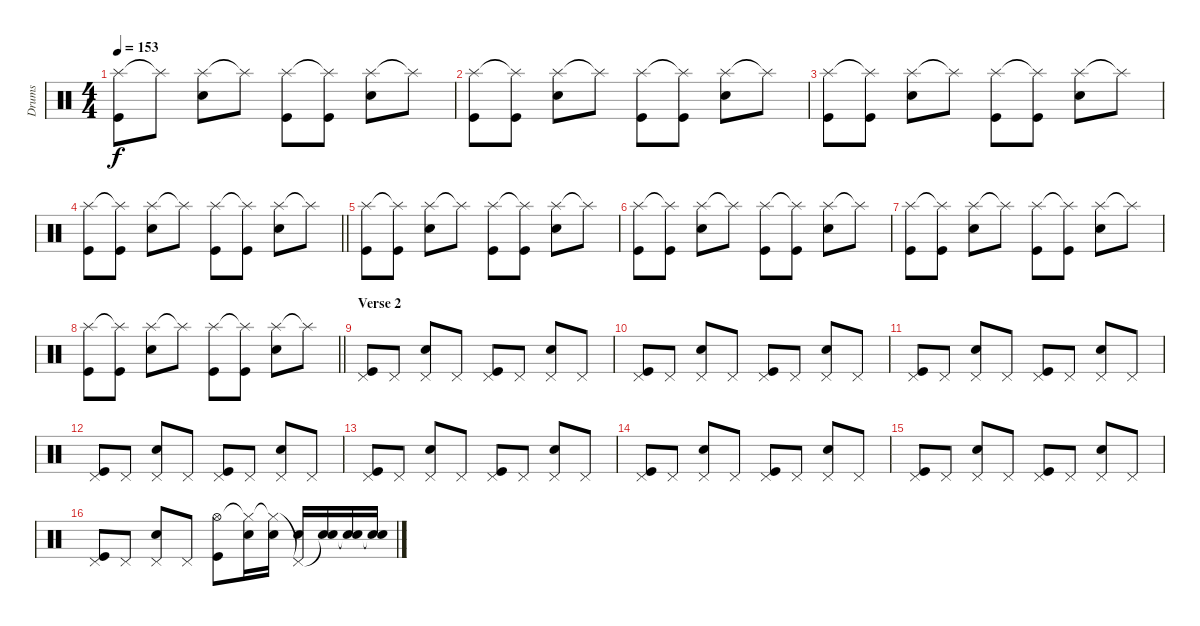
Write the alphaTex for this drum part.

\track ("Drums" "Drums") {instrument percussion}
\staff {score}
\articulation defaults
\ts (4 4)
\tempo 153
\clef neutral
\ks c
("Splash (hit)" "Kick (hit)").8{dy f} "Splash (hit)"{t}.8 ("Splash (hit)" "Snare (hit) 2").8 "Splash (hit)"{t}.8 ("Splash (hit)" "Kick (hit)").8 ("Splash (hit)"{t} "Kick (hit)").8 ("Splash (hit)" "Snare (hit) 2").8 "Splash (hit)"{t}.8 |
("Splash (hit)" "Kick (hit)").8 ("Splash (hit)"{t} "Kick (hit)").8 ("Splash (hit)" "Snare (hit) 2").8 "Splash (hit)"{t}.8 ("Splash (hit)" "Kick (hit)").8 ("Splash (hit)"{t} "Kick (hit)").8 ("Splash (hit)" "Snare (hit) 2").8 "Splash (hit)"{t}.8 |
("Splash (hit)" "Kick (hit)").8 ("Splash (hit)"{t} "Kick (hit)").8 ("Splash (hit)" "Snare (hit) 2").8 "Splash (hit)"{t}.8 ("Splash (hit)" "Kick (hit)").8 ("Splash (hit)"{t} "Kick (hit)").8 ("Splash (hit)" "Snare (hit) 2").8 "Splash (hit)"{t}.8 |
\barLineRight lightlight
("Splash (hit)" "Kick (hit)").8 ("Splash (hit)"{t} "Kick (hit)").8 ("Splash (hit)" "Snare (hit) 2").8 "Splash (hit)"{t}.8 ("Splash (hit)" "Kick (hit)").8 ("Splash (hit)"{t} "Kick (hit)").8 ("Splash (hit)" "Snare (hit) 2").8 "Splash (hit)"{t}.8 |
("Splash (hit)" "Kick (hit)").8 ("Splash (hit)"{t} "Kick (hit)").8 ("Splash (hit)" "Snare (hit) 2").8 "Splash (hit)"{t}.8 ("Splash (hit)" "Kick (hit)").8 ("Splash (hit)"{t} "Kick (hit)").8 ("Splash (hit)" "Snare (hit) 2").8 "Splash (hit)"{t}.8 |
("Splash (hit)" "Kick (hit)").8 ("Splash (hit)"{t} "Kick (hit)").8 ("Splash (hit)" "Snare (hit) 2").8 "Splash (hit)"{t}.8 ("Splash (hit)" "Kick (hit)").8 ("Splash (hit)"{t} "Kick (hit)").8 ("Splash (hit)" "Snare (hit) 2").8 "Splash (hit)"{t}.8 |
("Splash (hit)" "Kick (hit)").8 ("Splash (hit)"{t} "Kick (hit)").8 ("Splash (hit)" "Snare (hit) 2").8 "Splash (hit)"{t}.8 ("Splash (hit)" "Kick (hit)").8 ("Splash (hit)"{t} "Kick (hit)").8 ("Splash (hit)" "Snare (hit) 2").8 "Splash (hit)"{t}.8 |
\barLineRight lightlight
("Splash (hit)" "Kick (hit)").8 ("Splash (hit)"{t} "Kick (hit)").8 ("Splash (hit)" "Snare (hit) 2").8 "Splash (hit)"{t}.8 ("Splash (hit)" "Kick (hit)").8 ("Splash (hit)"{t} "Kick (hit)").8 ("Splash (hit)" "Snare (hit) 2").8 "Splash (hit)"{t}.8 |
\section ("" "Verse 2")
("Pedal Hi-Hat (hit)" "Kick (hit)").8 "Pedal Hi-Hat (hit)".8 ("Pedal Hi-Hat (hit)" "Snare (hit) 2").8 "Pedal Hi-Hat (hit)".8 ("Pedal Hi-Hat (hit)" "Kick (hit)").8 "Pedal Hi-Hat (hit)".8 ("Pedal Hi-Hat (hit)" "Snare (hit) 2").8 "Pedal Hi-Hat (hit)".8 |
("Pedal Hi-Hat (hit)" "Kick (hit)").8 "Pedal Hi-Hat (hit)".8 ("Pedal Hi-Hat (hit)" "Snare (hit) 2").8 "Pedal Hi-Hat (hit)".8 ("Pedal Hi-Hat (hit)" "Kick (hit)").8 "Pedal Hi-Hat (hit)".8 ("Pedal Hi-Hat (hit)" "Snare (hit) 2").8 "Pedal Hi-Hat (hit)".8 |
("Pedal Hi-Hat (hit)" "Kick (hit)").8 "Pedal Hi-Hat (hit)".8 ("Pedal Hi-Hat (hit)" "Snare (hit) 2").8 "Pedal Hi-Hat (hit)".8 ("Pedal Hi-Hat (hit)" "Kick (hit)").8 "Pedal Hi-Hat (hit)".8 ("Pedal Hi-Hat (hit)" "Snare (hit) 2").8 "Pedal Hi-Hat (hit)".8 |
("Pedal Hi-Hat (hit)" "Kick (hit)").8 "Pedal Hi-Hat (hit)".8 ("Pedal Hi-Hat (hit)" "Snare (hit) 2").8 "Pedal Hi-Hat (hit)".8 ("Pedal Hi-Hat (hit)" "Kick (hit)").8 "Pedal Hi-Hat (hit)".8 ("Pedal Hi-Hat (hit)" "Snare (hit) 2").8 "Pedal Hi-Hat (hit)".8 |
("Pedal Hi-Hat (hit)" "Kick (hit)").8 "Pedal Hi-Hat (hit)".8 ("Pedal Hi-Hat (hit)" "Snare (hit) 2").8 "Pedal Hi-Hat (hit)".8 ("Pedal Hi-Hat (hit)" "Kick (hit)").8 "Pedal Hi-Hat (hit)".8 ("Pedal Hi-Hat (hit)" "Snare (hit) 2").8 "Pedal Hi-Hat (hit)".8 |
("Pedal Hi-Hat (hit)" "Kick (hit)").8 "Pedal Hi-Hat (hit)".8 ("Pedal Hi-Hat (hit)" "Snare (hit) 2").8 "Pedal Hi-Hat (hit)".8 ("Pedal Hi-Hat (hit)" "Kick (hit)").8 "Pedal Hi-Hat (hit)".8 ("Pedal Hi-Hat (hit)" "Snare (hit) 2").8 "Pedal Hi-Hat (hit)".8 |
("Pedal Hi-Hat (hit)" "Kick (hit)").8 "Pedal Hi-Hat (hit)".8 ("Pedal Hi-Hat (hit)" "Snare (hit) 2").8 "Pedal Hi-Hat (hit)".8 ("Pedal Hi-Hat (hit)" "Kick (hit)").8 "Pedal Hi-Hat (hit)".8 ("Pedal Hi-Hat (hit)" "Snare (hit) 2").8 "Pedal Hi-Hat (hit)".8 |
("Pedal Hi-Hat (hit)" "Kick (hit)").8 "Pedal Hi-Hat (hit)".8 ("Pedal Hi-Hat (hit)" "Snare (hit) 2").8 "Pedal Hi-Hat (hit)".8 ("Hi-Hat (open)" "Kick (hit)").8 ("Hi-Hat (closed)"{t} "Snare (hit) 2").16 ("Hi-Hat (closed)"{t} "Snare (hit) 2").16 ("Pedal Hi-Hat (hit)"{t} "Snare (hit) 2").16 ("Snare (hit)"{t} "Snare (hit) 2").16 ("Snare (hit)"{t} "Snare (hit) 2").16 ("Snare (hit)"{t} "Snare (hit) 2").16
